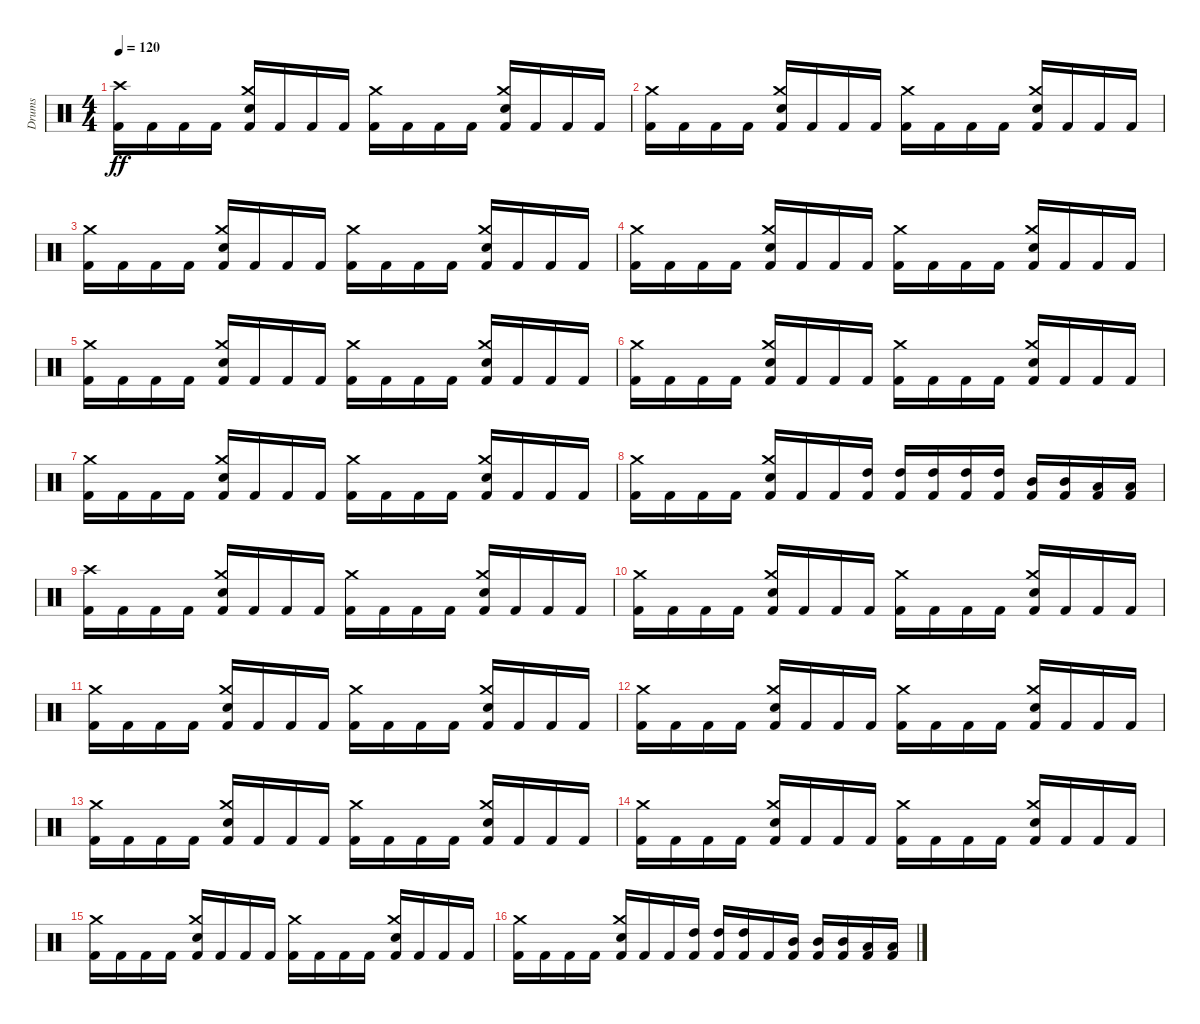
\track ("Drums" "Drums") {instrument percussion}
\staff {score}
\articulation defaults
\ts (4 4)
\section ("" "")
\tempo 120
\clef neutral
\ks c
("Crash high (hit)" "Kick (hit) 2").16{dy ff volume 13} "Kick (hit) 2".16 "Kick (hit) 2".16 "Kick (hit) 2".16 ("Crash medium (hit)" "Electric Snare (hit)" "Kick (hit) 2").16 "Kick (hit) 2".16 "Kick (hit) 2".16 "Kick (hit) 2".16 ("Crash medium (hit)" "Kick (hit) 2").16 "Kick (hit) 2".16 "Kick (hit) 2".16 "Kick (hit) 2".16 ("Crash medium (hit)" "Electric Snare (hit)" "Kick (hit) 2").16 "Kick (hit) 2".16 "Kick (hit) 2".16 "Kick (hit) 2".16 |
("Crash medium (hit)" "Kick (hit) 2").16{volume 12} "Kick (hit) 2".16 "Kick (hit) 2".16 "Kick (hit) 2".16 ("Crash medium (hit)" "Electric Snare (hit)" "Kick (hit) 2").16 "Kick (hit) 2".16 "Kick (hit) 2".16 "Kick (hit) 2".16 ("Crash medium (hit)" "Kick (hit) 2").16 "Kick (hit) 2".16 "Kick (hit) 2".16 "Kick (hit) 2".16 ("Crash medium (hit)" "Electric Snare (hit)" "Kick (hit) 2").16 "Kick (hit) 2".16 "Kick (hit) 2".16 "Kick (hit) 2".16 |
("Crash medium (hit)" "Kick (hit) 2").16{volume 11} "Kick (hit) 2".16 "Kick (hit) 2".16 "Kick (hit) 2".16 ("Crash medium (hit)" "Electric Snare (hit)" "Kick (hit) 2").16 "Kick (hit) 2".16 "Kick (hit) 2".16 "Kick (hit) 2".16 ("Crash medium (hit)" "Kick (hit) 2").16 "Kick (hit) 2".16 "Kick (hit) 2".16 "Kick (hit) 2".16 ("Crash medium (hit)" "Electric Snare (hit)" "Kick (hit) 2").16 "Kick (hit) 2".16 "Kick (hit) 2".16 "Kick (hit) 2".16 |
("Crash medium (hit)" "Kick (hit) 2").16{volume 10} "Kick (hit) 2".16 "Kick (hit) 2".16 "Kick (hit) 2".16 ("Crash medium (hit)" "Electric Snare (hit)" "Kick (hit) 2").16 "Kick (hit) 2".16 "Kick (hit) 2".16 "Kick (hit) 2".16 ("Crash medium (hit)" "Kick (hit) 2").16 "Kick (hit) 2".16 "Kick (hit) 2".16 "Kick (hit) 2".16 ("Crash medium (hit)" "Electric Snare (hit)" "Kick (hit) 2").16 "Kick (hit) 2".16 "Kick (hit) 2".16 "Kick (hit) 2".16 |
("Crash medium (hit)" "Kick (hit) 2").16{volume 9} "Kick (hit) 2".16 "Kick (hit) 2".16 "Kick (hit) 2".16 ("Crash medium (hit)" "Electric Snare (hit)" "Kick (hit) 2").16 "Kick (hit) 2".16 "Kick (hit) 2".16 "Kick (hit) 2".16 ("Crash medium (hit)" "Kick (hit) 2").16 "Kick (hit) 2".16 "Kick (hit) 2".16 "Kick (hit) 2".16 ("Crash medium (hit)" "Electric Snare (hit)" "Kick (hit) 2").16 "Kick (hit) 2".16 "Kick (hit) 2".16 "Kick (hit) 2".16 |
("Crash medium (hit)" "Kick (hit) 2").16{volume 8} "Kick (hit) 2".16 "Kick (hit) 2".16 "Kick (hit) 2".16 ("Crash medium (hit)" "Electric Snare (hit)" "Kick (hit) 2").16 "Kick (hit) 2".16 "Kick (hit) 2".16 "Kick (hit) 2".16 ("Crash medium (hit)" "Kick (hit) 2").16 "Kick (hit) 2".16 "Kick (hit) 2".16 "Kick (hit) 2".16 ("Crash medium (hit)" "Electric Snare (hit)" "Kick (hit) 2").16 "Kick (hit) 2".16 "Kick (hit) 2".16 "Kick (hit) 2".16 |
("Crash medium (hit)" "Kick (hit) 2").16{volume 7} "Kick (hit) 2".16 "Kick (hit) 2".16 "Kick (hit) 2".16 ("Crash medium (hit)" "Electric Snare (hit)" "Kick (hit) 2").16 "Kick (hit) 2".16 "Kick (hit) 2".16 "Kick (hit) 2".16 ("Crash medium (hit)" "Kick (hit) 2").16 "Kick (hit) 2".16 "Kick (hit) 2".16 "Kick (hit) 2".16 ("Crash medium (hit)" "Electric Snare (hit)" "Kick (hit) 2").16 "Kick (hit) 2".16 "Kick (hit) 2".16 "Kick (hit) 2".16 |
("Crash medium (hit)" "Kick (hit) 2").16{volume 6} "Kick (hit) 2".16 "Kick (hit) 2".16 "Kick (hit) 2".16 ("Crash medium (hit)" "Electric Snare (hit)" "Kick (hit) 2").16 "Kick (hit) 2".16 "Kick (hit) 2".16 ("High Tom (hit)" "Kick (hit) 2").16 ("High Tom (hit)" "Kick (hit) 2").16 ("High Tom (hit)" "Kick (hit) 2").16 ("High Tom (hit)" "Kick (hit) 2").16 ("High Tom (hit)" "Kick (hit) 2").16 ("Mid Tom (hit)" "Kick (hit) 2").16 ("Mid Tom (hit)" "Kick (hit) 2").16 ("Low Tom (hit)" "Kick (hit) 2").16 ("Low Tom (hit)" "Kick (hit) 2").16 |
("Crash high (hit)" "Kick (hit) 2").16{volume 5} "Kick (hit) 2".16 "Kick (hit) 2".16 "Kick (hit) 2".16 ("Crash medium (hit)" "Electric Snare (hit)" "Kick (hit) 2").16 "Kick (hit) 2".16 "Kick (hit) 2".16 "Kick (hit) 2".16 ("Crash medium (hit)" "Kick (hit) 2").16 "Kick (hit) 2".16 "Kick (hit) 2".16 "Kick (hit) 2".16 ("Crash medium (hit)" "Electric Snare (hit)" "Kick (hit) 2").16 "Kick (hit) 2".16 "Kick (hit) 2".16 "Kick (hit) 2".16 |
("Crash medium (hit)" "Kick (hit) 2").16{volume 4} "Kick (hit) 2".16 "Kick (hit) 2".16 "Kick (hit) 2".16 ("Crash medium (hit)" "Electric Snare (hit)" "Kick (hit) 2").16 "Kick (hit) 2".16 "Kick (hit) 2".16 "Kick (hit) 2".16 ("Crash medium (hit)" "Kick (hit) 2").16 "Kick (hit) 2".16 "Kick (hit) 2".16 "Kick (hit) 2".16 ("Crash medium (hit)" "Electric Snare (hit)" "Kick (hit) 2").16 "Kick (hit) 2".16 "Kick (hit) 2".16 "Kick (hit) 2".16 |
("Crash medium (hit)" "Kick (hit) 2").16{volume 3} "Kick (hit) 2".16 "Kick (hit) 2".16 "Kick (hit) 2".16 ("Crash medium (hit)" "Electric Snare (hit)" "Kick (hit) 2").16 "Kick (hit) 2".16 "Kick (hit) 2".16 "Kick (hit) 2".16 ("Crash medium (hit)" "Kick (hit) 2").16 "Kick (hit) 2".16 "Kick (hit) 2".16 "Kick (hit) 2".16 ("Crash medium (hit)" "Electric Snare (hit)" "Kick (hit) 2").16 "Kick (hit) 2".16 "Kick (hit) 2".16 "Kick (hit) 2".16 |
("Crash medium (hit)" "Kick (hit) 2").16{volume 2} "Kick (hit) 2".16 "Kick (hit) 2".16 "Kick (hit) 2".16 ("Crash medium (hit)" "Electric Snare (hit)" "Kick (hit) 2").16 "Kick (hit) 2".16 "Kick (hit) 2".16 "Kick (hit) 2".16 ("Crash medium (hit)" "Kick (hit) 2").16 "Kick (hit) 2".16 "Kick (hit) 2".16 "Kick (hit) 2".16 ("Crash medium (hit)" "Electric Snare (hit)" "Kick (hit) 2").16 "Kick (hit) 2".16 "Kick (hit) 2".16 "Kick (hit) 2".16 |
("Crash medium (hit)" "Kick (hit) 2").16{volume 1} "Kick (hit) 2".16 "Kick (hit) 2".16 "Kick (hit) 2".16 ("Crash medium (hit)" "Electric Snare (hit)" "Kick (hit) 2").16 "Kick (hit) 2".16 "Kick (hit) 2".16 "Kick (hit) 2".16 ("Crash medium (hit)" "Kick (hit) 2").16 "Kick (hit) 2".16 "Kick (hit) 2".16 "Kick (hit) 2".16 ("Crash medium (hit)" "Electric Snare (hit)" "Kick (hit) 2").16 "Kick (hit) 2".16 "Kick (hit) 2".16 "Kick (hit) 2".16 |
("Crash medium (hit)" "Kick (hit) 2").16 "Kick (hit) 2".16 "Kick (hit) 2".16 "Kick (hit) 2".16 ("Crash medium (hit)" "Electric Snare (hit)" "Kick (hit) 2").16 "Kick (hit) 2".16 "Kick (hit) 2".16 "Kick (hit) 2".16 ("Crash medium (hit)" "Kick (hit) 2").16 "Kick (hit) 2".16 "Kick (hit) 2".16 "Kick (hit) 2".16 ("Crash medium (hit)" "Electric Snare (hit)" "Kick (hit) 2").16 "Kick (hit) 2".16 "Kick (hit) 2".16 "Kick (hit) 2".16 |
("Crash medium (hit)" "Kick (hit) 2").16{volume 1} "Kick (hit) 2".16 "Kick (hit) 2".16 "Kick (hit) 2".16 ("Crash medium (hit)" "Electric Snare (hit)" "Kick (hit) 2").16 "Kick (hit) 2".16 "Kick (hit) 2".16 "Kick (hit) 2".16 ("Crash medium (hit)" "Kick (hit) 2").16 "Kick (hit) 2".16 "Kick (hit) 2".16 "Kick (hit) 2".16 ("Crash medium (hit)" "Electric Snare (hit)" "Kick (hit) 2").16 "Kick (hit) 2".16 "Kick (hit) 2".16 "Kick (hit) 2".16 |
("Crash medium (hit)" "Kick (hit) 2").16{volume 1} "Kick (hit) 2".16 "Kick (hit) 2".16 "Kick (hit) 2".16 ("Crash medium (hit)" "Electric Snare (hit)" "Kick (hit) 2").16 "Kick (hit) 2".16 "Kick (hit) 2".16 ("High Tom (hit)" "Kick (hit) 2").16 ("High Tom (hit)" "Kick (hit) 2").16 ("High Tom (hit)" "Kick (hit) 2").16 "Kick (hit) 2".16 ("Mid Tom (hit)" "Kick (hit) 2").16 ("Mid Tom (hit)" "Kick (hit) 2").16 ("Mid Tom (hit)" "Kick (hit) 2").16 ("Low Tom (hit)" "Kick (hit) 2").16 ("Low Tom (hit)" "Kick (hit) 2").16
